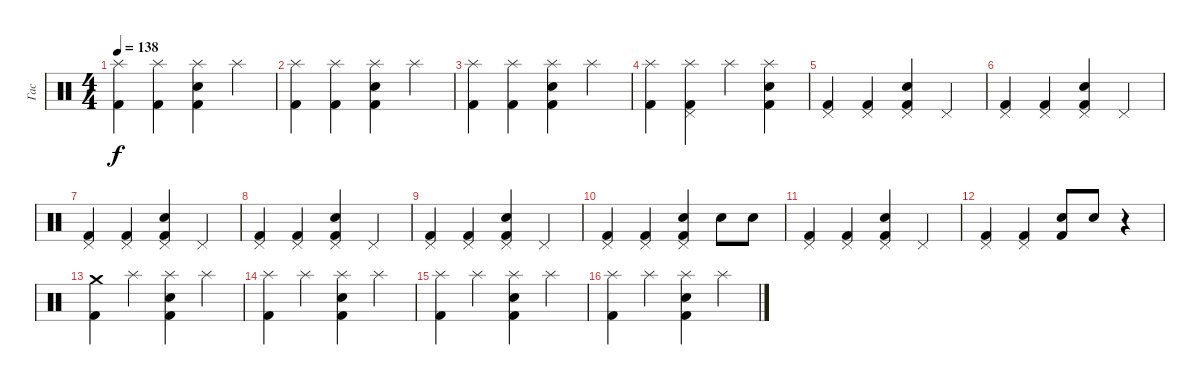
\track ("Гас" "Гас") {instrument percussion}
\staff {score}
\articulation defaults
\ts (4 4)
\tempo 138
\clef neutral
\ks c
("Splash (hit)" "Kick (hit) 2").4{dy f} ("Splash (hit)" "Kick (hit) 2").4 ("Splash (hit)" "Electric Snare (hit)" "Kick (hit) 2").4 "Splash (hit)".4 |
("Splash (hit)" "Kick (hit) 2").4 ("Splash (hit)" "Kick (hit) 2").4 ("Splash (hit)" "Electric Snare (hit)" "Kick (hit) 2").4 "Splash (hit)".4 |
("Splash (hit)" "Kick (hit) 2").4 ("Splash (hit)" "Kick (hit) 2").4 ("Splash (hit)" "Electric Snare (hit)" "Kick (hit) 2").4 "Splash (hit)".4 |
("Splash (hit)" "Kick (hit) 2").4 ("Splash (hit)" "Pedal Hi-Hat (hit)" "Kick (hit) 2").4 "Splash (hit)".4 ("Splash (hit)" "Electric Snare (hit)" "Kick (hit) 2").4 |
("Pedal Hi-Hat (hit)" "Kick (hit) 2").4 ("Pedal Hi-Hat (hit)" "Kick (hit) 2").4 ("Pedal Hi-Hat (hit)" "Electric Snare (hit)" "Kick (hit) 2").4 "Pedal Hi-Hat (hit)".4 |
("Pedal Hi-Hat (hit)" "Kick (hit) 2").4 ("Pedal Hi-Hat (hit)" "Kick (hit) 2").4 ("Pedal Hi-Hat (hit)" "Electric Snare (hit)" "Kick (hit) 2").4 "Pedal Hi-Hat (hit)".4 |
("Pedal Hi-Hat (hit)" "Kick (hit) 2").4 ("Pedal Hi-Hat (hit)" "Kick (hit) 2").4 ("Pedal Hi-Hat (hit)" "Electric Snare (hit)" "Kick (hit) 2").4 "Pedal Hi-Hat (hit)".4 |
("Pedal Hi-Hat (hit)" "Kick (hit) 2").4 ("Pedal Hi-Hat (hit)" "Kick (hit) 2").4 ("Pedal Hi-Hat (hit)" "Electric Snare (hit)" "Kick (hit) 2").4 "Pedal Hi-Hat (hit)".4 |
("Pedal Hi-Hat (hit)" "Kick (hit) 2").4 ("Pedal Hi-Hat (hit)" "Kick (hit) 2").4 ("Pedal Hi-Hat (hit)" "Electric Snare (hit)" "Kick (hit) 2").4 "Pedal Hi-Hat (hit)".4 |
("Pedal Hi-Hat (hit)" "Kick (hit) 2").4 ("Pedal Hi-Hat (hit)" "Kick (hit) 2").4 ("Pedal Hi-Hat (hit)" "Electric Snare (hit)" "Kick (hit) 2").4 "Electric Snare (hit)".8 "Electric Snare (hit)".8 |
("Pedal Hi-Hat (hit)" "Kick (hit) 2").4 ("Pedal Hi-Hat (hit)" "Kick (hit) 2").4 ("Pedal Hi-Hat (hit)" "Electric Snare (hit)" "Kick (hit) 2").4 "Pedal Hi-Hat (hit)".4 |
("Pedal Hi-Hat (hit)" "Kick (hit) 2").4 ("Pedal Hi-Hat (hit)" "Kick (hit) 2").4 ("Electric Snare (hit)" "Kick (hit) 2").8 "Electric Snare (hit)".8 r.4 |
("Crash medium (hit)" "Kick (hit) 2").4 "Splash (hit)".4 ("Splash (hit)" "Electric Snare (hit)" "Kick (hit) 2").4 "Splash (hit)".4 |
("Splash (hit)" "Kick (hit) 2").4 "Splash (hit)".4 ("Splash (hit)" "Electric Snare (hit)" "Kick (hit) 2").4 "Splash (hit)".4 |
("Splash (hit)" "Kick (hit) 2").4 "Splash (hit)".4 ("Splash (hit)" "Electric Snare (hit)" "Kick (hit) 2").4 "Splash (hit)".4 |
("Splash (hit)" "Kick (hit) 2").4 "Splash (hit)".4 ("Splash (hit)" "Electric Snare (hit)" "Kick (hit) 2").4 "Splash (hit)".4
